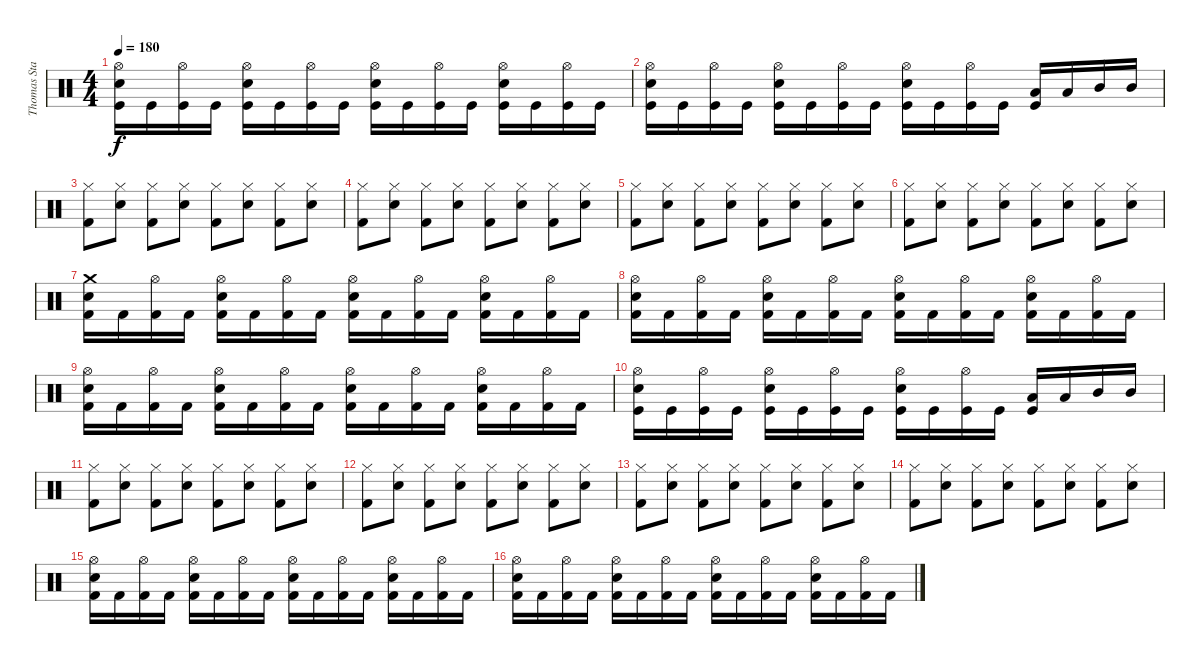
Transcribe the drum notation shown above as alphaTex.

\track ("Thomas Stauch" "Thomas Sta") {instrument percussion}
\staff {score}
\articulation defaults
\ts (4 4)
\tempo 180
\clef neutral
\ks c
("Kick (hit)" "Snare (hit) 2" "Hi-Hat (open)").16{dy f} "Kick (hit)".16 ("Kick (hit)" "Hi-Hat (open)").16 "Kick (hit)".16 ("Kick (hit)" "Snare (hit) 2" "Hi-Hat (open)").16 "Kick (hit)".16 ("Kick (hit)" "Hi-Hat (open)").16 "Kick (hit)".16 ("Kick (hit)" "Snare (hit) 2" "Hi-Hat (open)").16 "Kick (hit)".16 ("Kick (hit)" "Hi-Hat (open)").16 "Kick (hit)".16 ("Kick (hit)" "Snare (hit) 2" "Hi-Hat (open)").16 "Kick (hit)".16 ("Kick (hit)" "Hi-Hat (open)").16 "Kick (hit)".16 |
("Kick (hit)" "Snare (hit) 2" "Hi-Hat (open)").16 "Kick (hit)".16 ("Kick (hit)" "Hi-Hat (open)").16 "Kick (hit)".16 ("Kick (hit)" "Snare (hit) 2" "Hi-Hat (open)").16 "Kick (hit)".16 ("Kick (hit)" "Hi-Hat (open)").16 "Kick (hit)".16 ("Kick (hit)" "Snare (hit) 2" "Hi-Hat (open)").16 "Kick (hit)".16 ("Kick (hit)" "Hi-Hat (open)").16 "Kick (hit)".16 ("Kick (hit)" "Low Floor Tom (hit)").16 "Low Tom (hit)".16 "Mid Tom (hit)".16 "Mid Tom (hit)".16 |
("Kick (hit) 2" "Hi-Hat (closed)").8 ("Snare (hit) 2" "Hi-Hat (closed)").8 ("Kick (hit) 2" "Hi-Hat (closed)").8 ("Snare (hit) 2" "Hi-Hat (closed)").8 ("Kick (hit) 2" "Hi-Hat (closed)").8 ("Snare (hit) 2" "Hi-Hat (closed)").8 ("Kick (hit) 2" "Hi-Hat (closed)").8 ("Snare (hit) 2" "Hi-Hat (closed)").8 |
("Kick (hit) 2" "Hi-Hat (closed)").8 ("Snare (hit) 2" "Hi-Hat (closed)").8 ("Kick (hit) 2" "Hi-Hat (closed)").8 ("Snare (hit) 2" "Hi-Hat (closed)").8 ("Kick (hit) 2" "Hi-Hat (closed)").8 ("Snare (hit) 2" "Hi-Hat (closed)").8 ("Kick (hit) 2" "Hi-Hat (closed)").8 ("Snare (hit) 2" "Hi-Hat (closed)").8 |
("Kick (hit) 2" "Hi-Hat (closed)").8 ("Snare (hit) 2" "Hi-Hat (closed)").8 ("Kick (hit) 2" "Hi-Hat (closed)").8 ("Snare (hit) 2" "Hi-Hat (closed)").8 ("Kick (hit) 2" "Hi-Hat (closed)").8 ("Snare (hit) 2" "Hi-Hat (closed)").8 ("Kick (hit) 2" "Hi-Hat (closed)").8 ("Snare (hit) 2" "Hi-Hat (closed)").8 |
("Kick (hit) 2" "Hi-Hat (closed)").8 ("Snare (hit) 2" "Hi-Hat (closed)").8 ("Kick (hit) 2" "Hi-Hat (closed)").8 ("Snare (hit) 2" "Hi-Hat (closed)").8 ("Kick (hit) 2" "Hi-Hat (closed)").8 ("Snare (hit) 2" "Hi-Hat (closed)").8 ("Kick (hit) 2" "Hi-Hat (closed)").8 ("Snare (hit) 2" "Hi-Hat (closed)").8 |
("Kick (hit) 2" "Snare (hit) 2" "Crash medium (hit)").16 "Kick (hit) 2".16 ("Kick (hit) 2" "Hi-Hat (open)").16 "Kick (hit) 2".16 ("Kick (hit) 2" "Snare (hit) 2" "Hi-Hat (open)").16 "Kick (hit) 2".16 ("Kick (hit) 2" "Hi-Hat (open)").16 "Kick (hit) 2".16 ("Kick (hit) 2" "Snare (hit) 2" "Hi-Hat (open)").16 "Kick (hit) 2".16 ("Kick (hit) 2" "Hi-Hat (open)").16 "Kick (hit) 2".16 ("Kick (hit) 2" "Snare (hit) 2" "Hi-Hat (open)").16 "Kick (hit) 2".16 ("Kick (hit) 2" "Hi-Hat (open)").16 "Kick (hit) 2".16 |
("Kick (hit) 2" "Snare (hit) 2" "Hi-Hat (open)").16 "Kick (hit) 2".16 ("Kick (hit) 2" "Hi-Hat (open)").16 "Kick (hit) 2".16 ("Kick (hit) 2" "Snare (hit) 2" "Hi-Hat (open)").16 "Kick (hit) 2".16 ("Kick (hit) 2" "Hi-Hat (open)").16 "Kick (hit) 2".16 ("Kick (hit) 2" "Snare (hit) 2" "Hi-Hat (open)").16 "Kick (hit) 2".16 ("Kick (hit) 2" "Hi-Hat (open)").16 "Kick (hit) 2".16 ("Kick (hit) 2" "Snare (hit) 2" "Hi-Hat (open)").16 "Kick (hit) 2".16 ("Kick (hit) 2" "Hi-Hat (open)").16 "Kick (hit) 2".16 |
("Kick (hit) 2" "Snare (hit) 2" "Hi-Hat (open)").16 "Kick (hit) 2".16 ("Kick (hit) 2" "Hi-Hat (open)").16 "Kick (hit) 2".16 ("Kick (hit) 2" "Snare (hit) 2" "Hi-Hat (open)").16 "Kick (hit) 2".16 ("Kick (hit) 2" "Hi-Hat (open)").16 "Kick (hit) 2".16 ("Kick (hit) 2" "Snare (hit) 2" "Hi-Hat (open)").16 "Kick (hit) 2".16 ("Kick (hit) 2" "Hi-Hat (open)").16 "Kick (hit) 2".16 ("Kick (hit) 2" "Snare (hit) 2" "Hi-Hat (open)").16 "Kick (hit) 2".16 ("Kick (hit) 2" "Hi-Hat (open)").16 "Kick (hit) 2".16 |
("Kick (hit)" "Snare (hit) 2" "Hi-Hat (open)").16 "Kick (hit)".16 ("Kick (hit)" "Hi-Hat (open)").16 "Kick (hit)".16 ("Kick (hit)" "Snare (hit) 2" "Hi-Hat (open)").16 "Kick (hit)".16 ("Kick (hit)" "Hi-Hat (open)").16 "Kick (hit)".16 ("Kick (hit)" "Snare (hit) 2" "Hi-Hat (open)").16 "Kick (hit)".16 ("Kick (hit)" "Hi-Hat (open)").16 "Kick (hit)".16 ("Kick (hit)" "Low Floor Tom (hit)").16 "Low Tom (hit)".16 "Mid Tom (hit)".16 "Mid Tom (hit)".16 |
("Kick (hit) 2" "Hi-Hat (closed)").8 ("Snare (hit) 2" "Hi-Hat (closed)").8 ("Kick (hit) 2" "Hi-Hat (closed)").8 ("Snare (hit) 2" "Hi-Hat (closed)").8 ("Kick (hit) 2" "Hi-Hat (closed)").8 ("Snare (hit) 2" "Hi-Hat (closed)").8 ("Kick (hit) 2" "Hi-Hat (closed)").8 ("Snare (hit) 2" "Hi-Hat (closed)").8 |
("Kick (hit) 2" "Hi-Hat (closed)").8 ("Snare (hit) 2" "Hi-Hat (closed)").8 ("Kick (hit) 2" "Hi-Hat (closed)").8 ("Snare (hit) 2" "Hi-Hat (closed)").8 ("Kick (hit) 2" "Hi-Hat (closed)").8 ("Snare (hit) 2" "Hi-Hat (closed)").8 ("Kick (hit) 2" "Hi-Hat (closed)").8 ("Snare (hit) 2" "Hi-Hat (closed)").8 |
("Kick (hit) 2" "Hi-Hat (closed)").8 ("Snare (hit) 2" "Hi-Hat (closed)").8 ("Kick (hit) 2" "Hi-Hat (closed)").8 ("Snare (hit) 2" "Hi-Hat (closed)").8 ("Kick (hit) 2" "Hi-Hat (closed)").8 ("Snare (hit) 2" "Hi-Hat (closed)").8 ("Kick (hit) 2" "Hi-Hat (closed)").8 ("Snare (hit) 2" "Hi-Hat (closed)").8 |
("Kick (hit) 2" "Hi-Hat (closed)").8 ("Snare (hit) 2" "Hi-Hat (closed)").8 ("Kick (hit) 2" "Hi-Hat (closed)").8 ("Snare (hit) 2" "Hi-Hat (closed)").8 ("Kick (hit) 2" "Hi-Hat (closed)").8 ("Snare (hit) 2" "Hi-Hat (closed)").8 ("Kick (hit) 2" "Hi-Hat (closed)").8 ("Snare (hit) 2" "Hi-Hat (closed)").8 |
("Kick (hit) 2" "Snare (hit) 2" "Hi-Hat (open)").16 "Kick (hit) 2".16 ("Kick (hit) 2" "Hi-Hat (open)").16 "Kick (hit) 2".16 ("Kick (hit) 2" "Snare (hit) 2" "Hi-Hat (open)").16 "Kick (hit) 2".16 ("Kick (hit) 2" "Hi-Hat (open)").16 "Kick (hit) 2".16 ("Kick (hit) 2" "Snare (hit) 2" "Hi-Hat (open)").16 "Kick (hit) 2".16 ("Kick (hit) 2" "Hi-Hat (open)").16 "Kick (hit) 2".16 ("Kick (hit) 2" "Snare (hit) 2" "Hi-Hat (open)").16 "Kick (hit) 2".16 ("Kick (hit) 2" "Hi-Hat (open)").16 "Kick (hit) 2".16 |
("Kick (hit) 2" "Snare (hit) 2" "Hi-Hat (open)").16 "Kick (hit) 2".16 ("Kick (hit) 2" "Hi-Hat (open)").16 "Kick (hit) 2".16 ("Kick (hit) 2" "Snare (hit) 2" "Hi-Hat (open)").16 "Kick (hit) 2".16 ("Kick (hit) 2" "Hi-Hat (open)").16 "Kick (hit) 2".16 ("Kick (hit) 2" "Snare (hit) 2" "Hi-Hat (open)").16 "Kick (hit) 2".16 ("Kick (hit) 2" "Hi-Hat (open)").16 "Kick (hit) 2".16 ("Kick (hit) 2" "Snare (hit) 2" "Hi-Hat (open)").16 "Kick (hit) 2".16 ("Kick (hit) 2" "Hi-Hat (open)").16 "Kick (hit) 2".16
